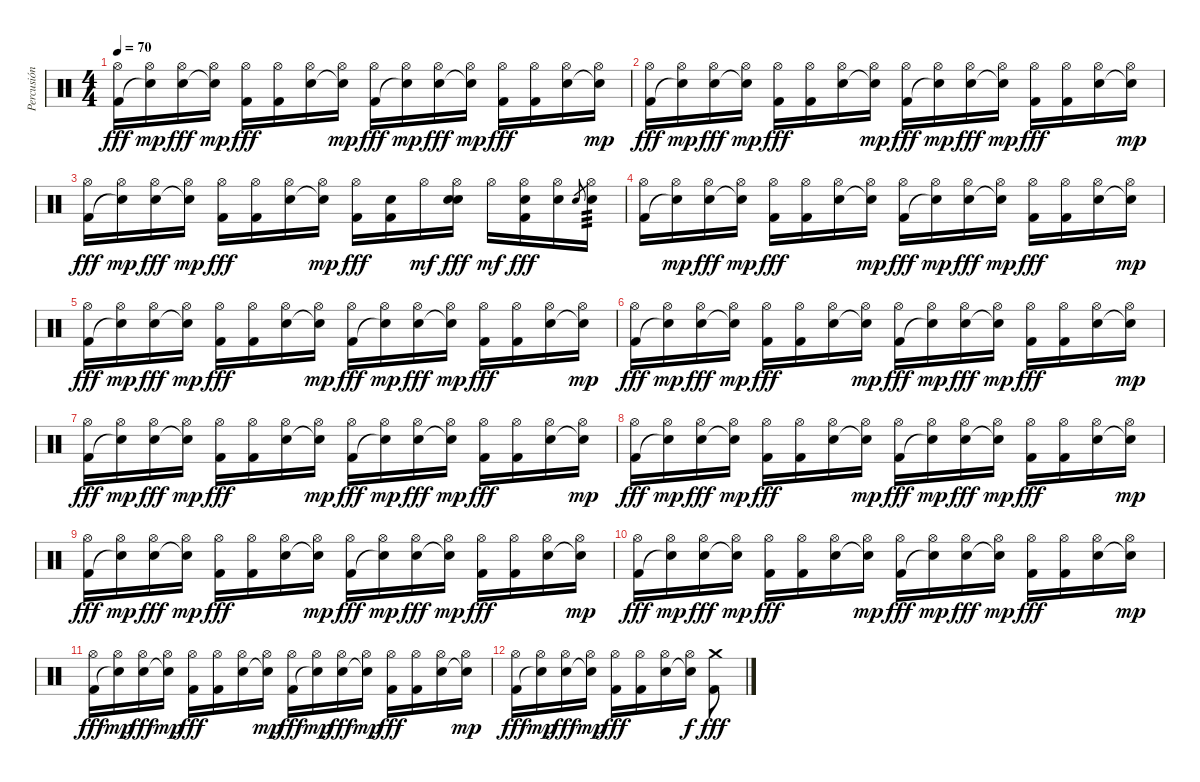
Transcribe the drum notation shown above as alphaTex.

\track ("Percusión" "Percusión") {instrument percussion}
\staff {score}
\articulation defaults
\ts (4 4)
\tempo 70
\clef neutral
\ks c
("Hi-Hat (open)" "Kick (hit) 2").16{dy fff} ("Hi-Hat (open)" "Snare (hit)"{t}).16{dy mp} ("Hi-Hat (open)" "Electric Snare (hit)").16{dy fff} ("Hi-Hat (open)" "Snare (hit)"{t}).16{dy mp} ("Hi-Hat (open)" "Kick (hit) 2").16{dy fff} ("Hi-Hat (open)" "Kick (hit) 2").16 ("Hi-Hat (open)" "Electric Snare (hit)").16 ("Hi-Hat (open)" "Snare (hit)"{t}).16{dy mp} ("Hi-Hat (open)" "Kick (hit) 2").16{dy fff} ("Hi-Hat (open)" "Snare (hit)"{t}).16{dy mp} ("Hi-Hat (open)" "Electric Snare (hit)").16{dy fff} ("Hi-Hat (open)" "Snare (hit)"{t}).16{dy mp} ("Hi-Hat (open)" "Kick (hit) 2").16{dy fff} ("Hi-Hat (open)" "Kick (hit) 2").16 ("Hi-Hat (open)" "Electric Snare (hit)").16 ("Hi-Hat (open)" "Snare (hit)"{t}).16{dy mp} |
("Hi-Hat (open)" "Kick (hit) 2").16{dy fff} ("Hi-Hat (open)" "Snare (hit)"{t}).16{dy mp} ("Hi-Hat (open)" "Electric Snare (hit)").16{dy fff} ("Hi-Hat (open)" "Snare (hit)"{t}).16{dy mp} ("Hi-Hat (open)" "Kick (hit) 2").16{dy fff} ("Hi-Hat (open)" "Kick (hit) 2").16 ("Hi-Hat (open)" "Electric Snare (hit)").16 ("Hi-Hat (open)" "Snare (hit)"{t}).16{dy mp} ("Hi-Hat (open)" "Kick (hit) 2").16{dy fff} ("Hi-Hat (open)" "Snare (hit)"{t}).16{dy mp} ("Hi-Hat (open)" "Electric Snare (hit)").16{dy fff} ("Hi-Hat (open)" "Snare (hit)"{t}).16{dy mp} ("Hi-Hat (open)" "Kick (hit) 2").16{dy fff} ("Hi-Hat (open)" "Kick (hit) 2").16 ("Hi-Hat (open)" "Electric Snare (hit)").16 ("Hi-Hat (open)" "Snare (hit)"{t}).16{dy mp} |
("Hi-Hat (open)" "Kick (hit) 2").16{dy fff} ("Hi-Hat (open)" "Snare (hit)"{t}).16{dy mp} ("Hi-Hat (open)" "Electric Snare (hit)").16{dy fff} ("Hi-Hat (open)" "Snare (hit)"{t}).16{dy mp} ("Hi-Hat (open)" "Kick (hit) 2").16{dy fff} ("Hi-Hat (open)" "Kick (hit) 2").16 ("Hi-Hat (open)" "Electric Snare (hit)").16 ("Hi-Hat (open)" "Snare (hit)"{t}).16{dy mp} ("Hi-Hat (open)" "Kick (hit) 2").16{dy fff} ("Electric Snare (hit)" "Kick (hit) 2").16 "Hi-Hat (open)".16{dy mf} ("Hi-Hat (open)" "Electric Snare (hit)" "Snare (hit)").16{dy fff} "Hi-Hat (open)".16{dy mf} ("Hi-Hat (open)" "Electric Snare (hit)" "Kick (hit) 2").16{dy fff} ("Hi-Hat (open)" "Electric Snare (hit)").16 "Electric Snare (hit)".8{gr} ("Hi-Hat (open)" "Electric Snare (hit)").16{tp 3} |
("Hi-Hat (open)" "Kick (hit) 2").16 ("Hi-Hat (open)" "Snare (hit)"{t}).16{dy mp} ("Hi-Hat (open)" "Electric Snare (hit)").16{dy fff} ("Hi-Hat (open)" "Snare (hit)"{t}).16{dy mp} ("Hi-Hat (open)" "Kick (hit) 2").16{dy fff} ("Hi-Hat (open)" "Kick (hit) 2").16 ("Hi-Hat (open)" "Electric Snare (hit)").16 ("Hi-Hat (open)" "Snare (hit)"{t}).16{dy mp} ("Hi-Hat (open)" "Kick (hit) 2").16{dy fff} ("Hi-Hat (open)" "Snare (hit)"{t}).16{dy mp} ("Hi-Hat (open)" "Electric Snare (hit)").16{dy fff} ("Hi-Hat (open)" "Snare (hit)"{t}).16{dy mp} ("Hi-Hat (open)" "Kick (hit) 2").16{dy fff} ("Hi-Hat (open)" "Kick (hit) 2").16 ("Hi-Hat (open)" "Electric Snare (hit)").16 ("Hi-Hat (open)" "Snare (hit)"{t}).16{dy mp} |
("Hi-Hat (open)" "Kick (hit) 2").16{dy fff} ("Hi-Hat (open)" "Snare (hit)"{t}).16{dy mp} ("Hi-Hat (open)" "Electric Snare (hit)").16{dy fff} ("Hi-Hat (open)" "Snare (hit)"{t}).16{dy mp} ("Hi-Hat (open)" "Kick (hit) 2").16{dy fff} ("Hi-Hat (open)" "Kick (hit) 2").16 ("Hi-Hat (open)" "Electric Snare (hit)").16 ("Hi-Hat (open)" "Snare (hit)"{t}).16{dy mp} ("Hi-Hat (open)" "Kick (hit) 2").16{dy fff} ("Hi-Hat (open)" "Snare (hit)"{t}).16{dy mp} ("Hi-Hat (open)" "Electric Snare (hit)").16{dy fff} ("Hi-Hat (open)" "Snare (hit)"{t}).16{dy mp} ("Hi-Hat (open)" "Kick (hit) 2").16{dy fff} ("Hi-Hat (open)" "Kick (hit) 2").16 ("Hi-Hat (open)" "Electric Snare (hit)").16 ("Hi-Hat (open)" "Snare (hit)"{t}).16{dy mp} |
("Hi-Hat (open)" "Kick (hit) 2").16{dy fff} ("Hi-Hat (open)" "Snare (hit)"{t}).16{dy mp} ("Hi-Hat (open)" "Electric Snare (hit)").16{dy fff} ("Hi-Hat (open)" "Snare (hit)"{t}).16{dy mp} ("Hi-Hat (open)" "Kick (hit) 2").16{dy fff} ("Hi-Hat (open)" "Kick (hit) 2").16 ("Hi-Hat (open)" "Electric Snare (hit)").16 ("Hi-Hat (open)" "Snare (hit)"{t}).16{dy mp} ("Hi-Hat (open)" "Kick (hit) 2").16{dy fff} ("Hi-Hat (open)" "Snare (hit)"{t}).16{dy mp} ("Hi-Hat (open)" "Electric Snare (hit)").16{dy fff} ("Hi-Hat (open)" "Snare (hit)"{t}).16{dy mp} ("Hi-Hat (open)" "Kick (hit) 2").16{dy fff} ("Hi-Hat (open)" "Kick (hit) 2").16 ("Hi-Hat (open)" "Electric Snare (hit)").16 ("Hi-Hat (open)" "Snare (hit)"{t}).16{dy mp} |
("Hi-Hat (open)" "Kick (hit) 2").16{dy fff} ("Hi-Hat (open)" "Snare (hit)"{t}).16{dy mp} ("Hi-Hat (open)" "Electric Snare (hit)").16{dy fff} ("Hi-Hat (open)" "Snare (hit)"{t}).16{dy mp} ("Hi-Hat (open)" "Kick (hit) 2").16{dy fff} ("Hi-Hat (open)" "Kick (hit) 2").16 ("Hi-Hat (open)" "Electric Snare (hit)").16 ("Hi-Hat (open)" "Snare (hit)"{t}).16{dy mp} ("Hi-Hat (open)" "Kick (hit) 2").16{dy fff} ("Hi-Hat (open)" "Snare (hit)"{t}).16{dy mp} ("Hi-Hat (open)" "Electric Snare (hit)").16{dy fff} ("Hi-Hat (open)" "Snare (hit)"{t}).16{dy mp} ("Hi-Hat (open)" "Kick (hit) 2").16{dy fff} ("Hi-Hat (open)" "Kick (hit) 2").16 ("Hi-Hat (open)" "Electric Snare (hit)").16 ("Hi-Hat (open)" "Snare (hit)"{t}).16{dy mp} |
("Hi-Hat (open)" "Kick (hit) 2").16{dy fff} ("Hi-Hat (open)" "Snare (hit)"{t}).16{dy mp} ("Hi-Hat (open)" "Electric Snare (hit)").16{dy fff} ("Hi-Hat (open)" "Snare (hit)"{t}).16{dy mp} ("Hi-Hat (open)" "Kick (hit) 2").16{dy fff} ("Hi-Hat (open)" "Kick (hit) 2").16 ("Hi-Hat (open)" "Electric Snare (hit)").16 ("Hi-Hat (open)" "Snare (hit)"{t}).16{dy mp} ("Hi-Hat (open)" "Kick (hit) 2").16{dy fff} ("Hi-Hat (open)" "Snare (hit)"{t}).16{dy mp} ("Hi-Hat (open)" "Electric Snare (hit)").16{dy fff} ("Hi-Hat (open)" "Snare (hit)"{t}).16{dy mp} ("Hi-Hat (open)" "Kick (hit) 2").16{dy fff} ("Hi-Hat (open)" "Kick (hit) 2").16 ("Hi-Hat (open)" "Electric Snare (hit)").16 ("Hi-Hat (open)" "Snare (hit)"{t}).16{dy mp} |
("Hi-Hat (open)" "Kick (hit) 2").16{dy fff} ("Hi-Hat (open)" "Snare (hit)"{t}).16{dy mp} ("Hi-Hat (open)" "Electric Snare (hit)").16{dy fff} ("Hi-Hat (open)" "Snare (hit)"{t}).16{dy mp} ("Hi-Hat (open)" "Kick (hit) 2").16{dy fff} ("Hi-Hat (open)" "Kick (hit) 2").16 ("Hi-Hat (open)" "Electric Snare (hit)").16 ("Hi-Hat (open)" "Snare (hit)"{t}).16{dy mp} ("Hi-Hat (open)" "Kick (hit) 2").16{dy fff} ("Hi-Hat (open)" "Snare (hit)"{t}).16{dy mp} ("Hi-Hat (open)" "Electric Snare (hit)").16{dy fff} ("Hi-Hat (open)" "Snare (hit)"{t}).16{dy mp} ("Hi-Hat (open)" "Kick (hit) 2").16{dy fff} ("Hi-Hat (open)" "Kick (hit) 2").16 ("Hi-Hat (open)" "Electric Snare (hit)").16 ("Hi-Hat (open)" "Snare (hit)"{t}).16{dy mp} |
("Hi-Hat (open)" "Kick (hit) 2").16{dy fff} ("Hi-Hat (open)" "Snare (hit)"{t}).16{dy mp} ("Hi-Hat (open)" "Electric Snare (hit)").16{dy fff} ("Hi-Hat (open)" "Snare (hit)"{t}).16{dy mp} ("Hi-Hat (open)" "Kick (hit) 2").16{dy fff} ("Hi-Hat (open)" "Kick (hit) 2").16 ("Hi-Hat (open)" "Electric Snare (hit)").16 ("Hi-Hat (open)" "Snare (hit)"{t}).16{dy mp} ("Hi-Hat (open)" "Kick (hit) 2").16{dy fff} ("Hi-Hat (open)" "Snare (hit)"{t}).16{dy mp} ("Hi-Hat (open)" "Electric Snare (hit)").16{dy fff} ("Hi-Hat (open)" "Snare (hit)"{t}).16{dy mp} ("Hi-Hat (open)" "Kick (hit) 2").16{dy fff} ("Hi-Hat (open)" "Kick (hit) 2").16 ("Hi-Hat (open)" "Electric Snare (hit)").16 ("Hi-Hat (open)" "Snare (hit)"{t}).16{dy mp} |
("Hi-Hat (open)" "Kick (hit) 2").16{dy fff} ("Hi-Hat (open)" "Snare (hit)"{t}).16{dy mp} ("Hi-Hat (open)" "Electric Snare (hit)").16{dy fff} ("Hi-Hat (open)" "Snare (hit)"{t}).16{dy mp} ("Hi-Hat (open)" "Kick (hit) 2").16{dy fff} ("Hi-Hat (open)" "Kick (hit) 2").16 ("Hi-Hat (open)" "Electric Snare (hit)").16 ("Hi-Hat (open)" "Snare (hit)"{t}).16{dy mp} ("Hi-Hat (open)" "Kick (hit) 2").16{dy fff} ("Hi-Hat (open)" "Snare (hit)"{t}).16{dy mp} ("Hi-Hat (open)" "Electric Snare (hit)").16{dy fff} ("Hi-Hat (open)" "Snare (hit)"{t}).16{dy mp} ("Hi-Hat (open)" "Kick (hit) 2").16{dy fff} ("Hi-Hat (open)" "Kick (hit) 2").16 ("Hi-Hat (open)" "Electric Snare (hit)").16 ("Hi-Hat (open)" "Snare (hit)"{t}).16{dy mp} |
("Hi-Hat (open)" "Kick (hit) 2").16{dy fff} ("Hi-Hat (open)" "Snare (hit)"{t}).16{dy mp} ("Hi-Hat (open)" "Electric Snare (hit)").16{dy fff} ("Hi-Hat (open)" "Snare (hit)"{t}).16{dy mp} ("Hi-Hat (open)" "Kick (hit) 2").16{dy fff} ("Hi-Hat (open)" "Kick (hit) 2").16 ("Hi-Hat (open)" "Electric Snare (hit)").16 ("Hi-Hat (open)" "Snare (hit)"{t}).16{dy f} ("Crash medium (hit)" "Kick (hit) 2").8{dy fff}
